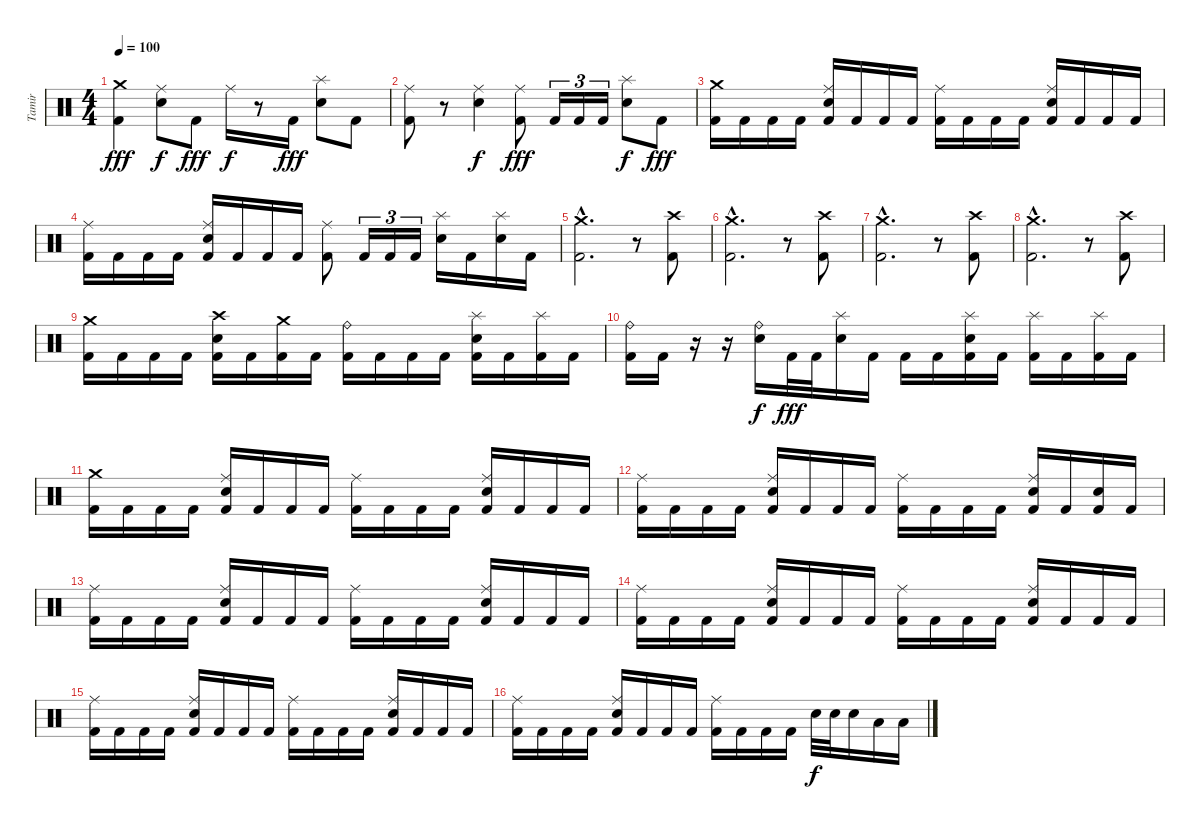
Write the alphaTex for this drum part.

\track ("Tamir" "Tamir") {instrument percussion}
\staff {score}
\articulation defaults
\ts (4 4)
\tempo 100
\clef neutral
\ks c
("Crash medium (hit)" "Kick (hit) 2").4{dy fff} ("Ride (middle)" "Electric Snare (hit)").8{dy f} "Kick (hit) 2".8{dy fff} "Ride (middle)".16{dy f} r.8 "Kick (hit) 2".16{dy fff} ("Splash (hit)" "Electric Snare (hit)").8 "Kick (hit) 2".8 |
("Ride (middle)" "Kick (hit) 2").8 r.8 ("Ride (middle)" "Electric Snare (hit)").4{dy f} ("Ride (middle)" "Kick (hit) 2").8{dy fff} "Kick (hit) 2".16{tu (3 2)} "Kick (hit) 2".16{tu (3 2)} "Kick (hit) 2".16{tu (3 2)} ("Splash (hit)" "Electric Snare (hit)").8{dy f} "Kick (hit) 2".8{dy fff} |
("Crash medium (hit)" "Kick (hit) 2").16 "Kick (hit) 2".16 "Kick (hit) 2".16 "Kick (hit) 2".16 ("Ride (middle)" "Electric Snare (hit)" "Kick (hit) 2").16 "Kick (hit) 2".16 "Kick (hit) 2".16 "Kick (hit) 2".16 ("Ride (middle)" "Kick (hit) 2").16 "Kick (hit) 2".16 "Kick (hit) 2".16 "Kick (hit) 2".16 ("Ride (middle)" "Electric Snare (hit)" "Kick (hit) 2").16 "Kick (hit) 2".16 "Kick (hit) 2".16 "Kick (hit) 2".16 |
("Ride (middle)" "Kick (hit) 2").16 "Kick (hit) 2".16 "Kick (hit) 2".16 "Kick (hit) 2".16 ("Ride (middle)" "Electric Snare (hit)" "Kick (hit) 2").16 "Kick (hit) 2".16 "Kick (hit) 2".16 "Kick (hit) 2".16 ("Ride (middle)" "Kick (hit) 2").8 "Kick (hit) 2".16{tu (3 2)} "Kick (hit) 2".16{tu (3 2)} "Kick (hit) 2".16{tu (3 2)} ("Splash (hit)" "Electric Snare (hit)").16 "Kick (hit) 2".16 ("Splash (hit)" "Electric Snare (hit)").16 "Kick (hit) 2".16 |
("Crash medium (hit)"{hac} "Kick (hit) 2"{hac}).2{d} r.8 ("Crash high (hit)" "Kick (hit) 2").8 |
("Crash medium (hit)"{hac} "Kick (hit) 2"{hac}).2{d} r.8 ("Crash high (hit)" "Kick (hit) 2").8 |
("Crash medium (hit)"{hac} "Kick (hit) 2"{hac}).2{d} r.8 ("Crash high (hit)" "Kick (hit) 2").8 |
("Crash medium (hit)"{hac} "Kick (hit) 2"{hac}).2{d} r.8 ("Crash high (hit)" "Kick (hit) 2").8 |
("Crash medium (hit)" "Kick (hit) 2").16 "Kick (hit) 2".16 "Kick (hit) 2".16 "Kick (hit) 2".16 ("Crash high (hit)" "Electric Snare (hit)" "Kick (hit) 2").16 "Kick (hit) 2".16 ("Crash medium (hit)" "Kick (hit) 2").16 "Kick (hit) 2".16 ("Ride (bell)" "Kick (hit) 2").16 "Kick (hit) 2".16 "Kick (hit) 2".16 "Kick (hit) 2".16 ("Splash (hit)" "Electric Snare (hit)" "Kick (hit) 2").16 "Kick (hit) 2".16 ("Splash (hit)" "Kick (hit) 2").16 "Kick (hit) 2".16 |
("Ride (bell)" "Kick (hit) 2").16 "Kick (hit) 2".16 r.16 r.16 ("Ride (bell)" "Electric Snare (hit)").16{dy f} "Kick (hit) 2".32{dy fff} "Kick (hit) 2".32 ("Splash (hit)" "Electric Snare (hit)").16 "Kick (hit) 2".16 "Kick (hit) 2".16 "Kick (hit) 2".16 ("Splash (hit)" "Electric Snare (hit)" "Kick (hit) 2").16 "Kick (hit) 2".16 ("Splash (hit)" "Kick (hit) 2").16 "Kick (hit) 2".16 ("Splash (hit)" "Kick (hit) 2").16 "Kick (hit) 2".16 |
("Crash medium (hit)" "Kick (hit) 2").16 "Kick (hit) 2".16 "Kick (hit) 2".16 "Kick (hit) 2".16 ("Ride (middle)" "Electric Snare (hit)" "Kick (hit) 2").16 "Kick (hit) 2".16 "Kick (hit) 2".16 "Kick (hit) 2".16 ("Ride (middle)" "Kick (hit) 2").16 "Kick (hit) 2".16 "Kick (hit) 2".16 "Kick (hit) 2".16 ("Ride (middle)" "Electric Snare (hit)" "Kick (hit) 2").16 "Kick (hit) 2".16 "Kick (hit) 2".16 "Kick (hit) 2".16 |
("Ride (middle)" "Kick (hit) 2").16 "Kick (hit) 2".16 "Kick (hit) 2".16 "Kick (hit) 2".16 ("Ride (middle)" "Electric Snare (hit)" "Kick (hit) 2").16 "Kick (hit) 2".16 "Kick (hit) 2".16 "Kick (hit) 2".16 ("Ride (middle)" "Kick (hit) 2").16 "Kick (hit) 2".16 "Kick (hit) 2".16 "Kick (hit) 2".16 ("Ride (middle)" "Electric Snare (hit)" "Kick (hit) 2").16 "Kick (hit) 2".16 ("Electric Snare (hit)" "Kick (hit) 2").16 "Kick (hit) 2".16 |
("Ride (middle)" "Kick (hit) 2").16 "Kick (hit) 2".16 "Kick (hit) 2".16 "Kick (hit) 2".16 ("Ride (middle)" "Electric Snare (hit)" "Kick (hit) 2").16 "Kick (hit) 2".16 "Kick (hit) 2".16 "Kick (hit) 2".16 ("Ride (middle)" "Kick (hit) 2").16 "Kick (hit) 2".16 "Kick (hit) 2".16 "Kick (hit) 2".16 ("Ride (middle)" "Electric Snare (hit)" "Kick (hit) 2").16 "Kick (hit) 2".16 "Kick (hit) 2".16 "Kick (hit) 2".16 |
("Ride (middle)" "Kick (hit) 2").16 "Kick (hit) 2".16 "Kick (hit) 2".16 "Kick (hit) 2".16 ("Ride (middle)" "Electric Snare (hit)" "Kick (hit) 2").16 "Kick (hit) 2".16 "Kick (hit) 2".16 "Kick (hit) 2".16 ("Ride (middle)" "Kick (hit) 2").16 "Kick (hit) 2".16 "Kick (hit) 2".16 "Kick (hit) 2".16 ("Ride (middle)" "Electric Snare (hit)" "Kick (hit) 2").16 "Kick (hit) 2".16 "Kick (hit) 2".16 "Kick (hit) 2".16 |
("Ride (middle)" "Kick (hit) 2").16 "Kick (hit) 2".16 "Kick (hit) 2".16 "Kick (hit) 2".16 ("Ride (middle)" "Electric Snare (hit)" "Kick (hit) 2").16 "Kick (hit) 2".16 "Kick (hit) 2".16 "Kick (hit) 2".16 ("Ride (middle)" "Kick (hit) 2").16 "Kick (hit) 2".16 "Kick (hit) 2".16 "Kick (hit) 2".16 ("Ride (middle)" "Electric Snare (hit)" "Kick (hit) 2").16 "Kick (hit) 2".16 "Kick (hit) 2".16 "Kick (hit) 2".16 |
("Ride (middle)" "Kick (hit) 2").16 "Kick (hit) 2".16 "Kick (hit) 2".16 "Kick (hit) 2".16 ("Ride (middle)" "Electric Snare (hit)" "Kick (hit) 2").16 "Kick (hit) 2".16 "Kick (hit) 2".16 "Kick (hit) 2".16 ("Ride (middle)" "Kick (hit) 2").16 "Kick (hit) 2".16 "Kick (hit) 2".16 "Kick (hit) 2".16 "Electric Snare (hit)".32{dy f} "Electric Snare (hit)".32 "Electric Snare (hit)".16 "Low Tom (hit)".16 "Low Tom (hit)".16
